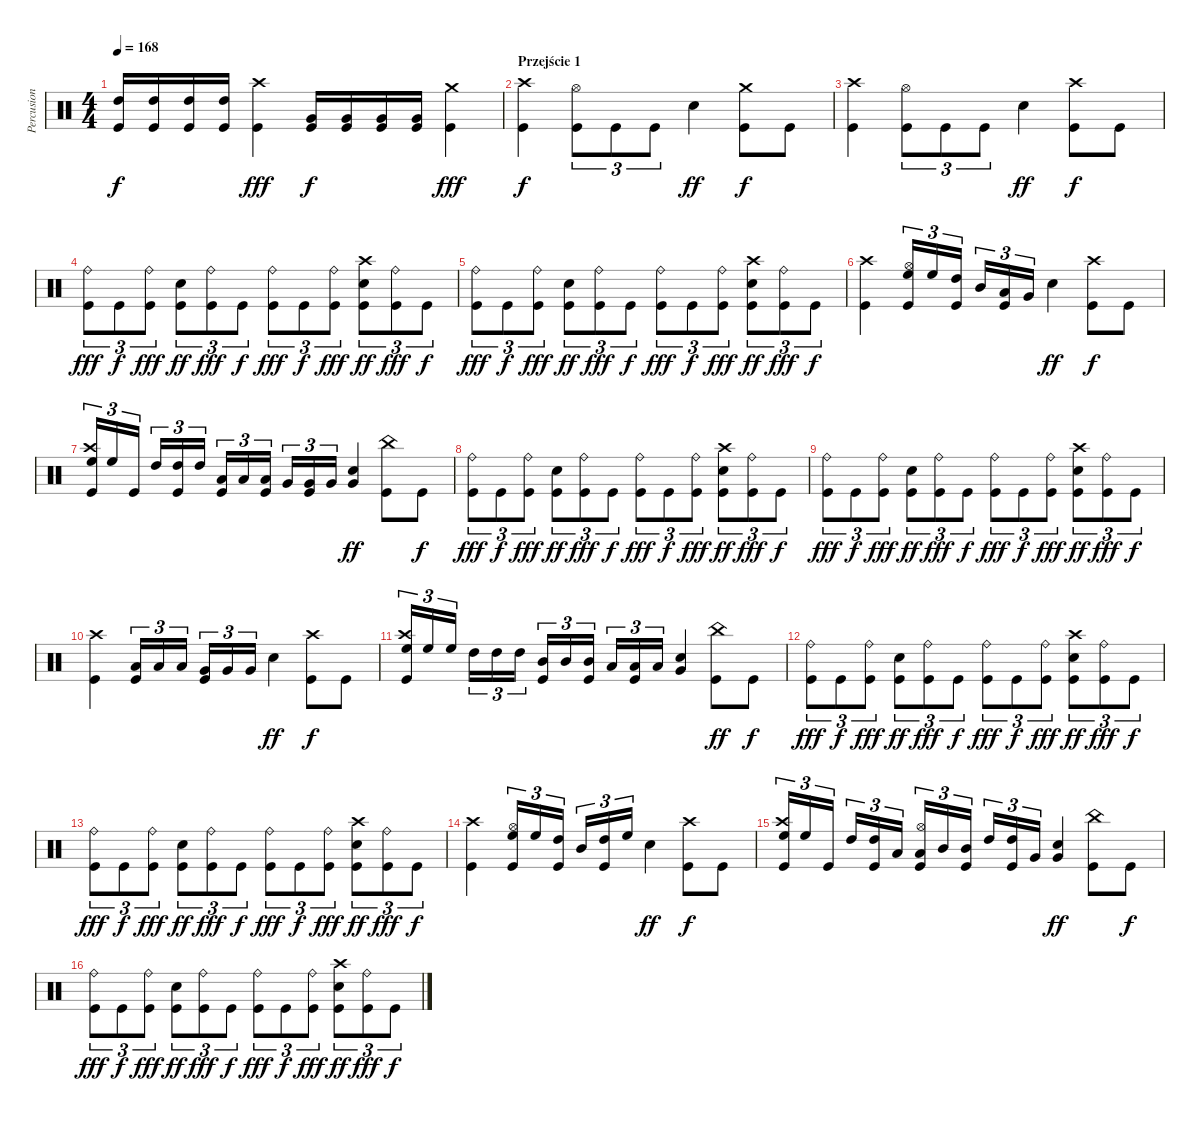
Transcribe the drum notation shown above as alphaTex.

\track ("Percusion" "Percusion") {instrument percussion}
\staff {score}
\articulation defaults
\ts (4 4)
\tempo 168
\clef neutral
\ks c
("High Tom (hit)" "Kick (hit)").16{dy f} ("High Tom (hit)" "Kick (hit)").16 ("High Tom (hit)" "Kick (hit)").16 ("High Tom (hit)" "Kick (hit)").16 ("Crash high (hit)" "Kick (hit)").4{dy fff} ("Very Low Tom (hit)" "Kick (hit)").16{dy f} ("Very Low Tom (hit)" "Kick (hit)").16 ("Very Low Tom (hit)" "Kick (hit)").16 ("Very Low Tom (hit)" "Kick (hit)").16 ("Crash medium (hit)" "Kick (hit)").4{dy fff} |
\section ("" "Przejście 1")
("Crash high (hit)" "Kick (hit)").4{dy f} ("Hi-Hat (open)" "Kick (hit)").8{tu (3 2)} "Kick (hit)".8{tu (3 2)} "Kick (hit)".8{tu (3 2)} "Snare (hit) 2".4{dy ff} ("Crash medium (hit)" "Kick (hit)").8{dy f} "Kick (hit)".8 |
("Crash high (hit)" "Kick (hit)").4 ("Hi-Hat (open)" "Kick (hit)").8{tu (3 2)} "Kick (hit)".8{tu (3 2)} "Kick (hit)".8{tu (3 2)} "Snare (hit) 2".4{dy ff} ("Crash high (hit)" "Kick (hit)").8{dy f} "Kick (hit)".8 |
("Ride (bell)" "Kick (hit)").8{tu (3 2) dy fff} "Kick (hit)".8{tu (3 2) dy f} ("Ride (bell)" "Kick (hit)").8{tu (3 2) dy fff} ("Snare (hit) 2" "Kick (hit)").8{tu (3 2) dy ff} ("Ride (bell)" "Kick (hit)").8{tu (3 2) dy fff} "Kick (hit)".8{tu (3 2) dy f} ("Ride (bell)" "Kick (hit)").8{tu (3 2) dy fff} "Kick (hit)".8{tu (3 2) dy f} ("Ride (bell)" "Kick (hit)").8{tu (3 2) dy fff} ("Crash high (hit)" "Snare (hit) 2" "Kick (hit)").8{tu (3 2) dy ff} ("Ride (bell)" "Kick (hit)").8{tu (3 2) dy fff} "Kick (hit)".8{tu (3 2) dy f} |
("Ride (bell)" "Kick (hit)").8{tu (3 2) dy fff} "Kick (hit)".8{tu (3 2) dy f} ("Ride (bell)" "Kick (hit)").8{tu (3 2) dy fff} ("Snare (hit) 2" "Kick (hit)").8{tu (3 2) dy ff} ("Ride (bell)" "Kick (hit)").8{tu (3 2) dy fff} "Kick (hit)".8{tu (3 2) dy f} ("Ride (bell)" "Kick (hit)").8{tu (3 2) dy fff} "Kick (hit)".8{tu (3 2) dy f} ("Ride (bell)" "Kick (hit)").8{tu (3 2) dy fff} ("Crash high (hit)" "Snare (hit) 2" "Kick (hit)").8{tu (3 2) dy ff} ("Ride (bell)" "Kick (hit)").8{tu (3 2) dy fff} "Kick (hit)".8{tu (3 2) dy f} |
("Crash high (hit)" "Kick (hit)").4 ("Hi-Hat (open)" "High Floor Tom (hit)" "Kick (hit)").16{tu (3 2)} "High Floor Tom (hit)".16{tu (3 2)} ("High Tom (hit)" "Kick (hit)").16{tu (3 2)} "Mid Tom (hit)".16{tu (3 2)} ("Low Tom (hit)" "Kick (hit)").16{tu (3 2)} "Very Low Tom (hit)".16{tu (3 2)} "Snare (hit) 2".4{dy ff} ("Crash high (hit)" "Kick (hit)").8{dy f} "Kick (hit)".8 |
("Crash high (hit)" "High Floor Tom (hit)" "Kick (hit)").16{tu (3 2)} "High Floor Tom (hit)".16{tu (3 2)} "Kick (hit)".16{tu (3 2)} "High Tom (hit)".16{tu (3 2)} ("High Tom (hit)" "Kick (hit)").16{tu (3 2)} "High Tom (hit)".16{tu (3 2)} ("Low Tom (hit)" "Kick (hit)").16{tu (3 2)} "Low Tom (hit)".16{tu (3 2)} ("Low Tom (hit)" "Kick (hit)").16{tu (3 2)} "Very Low Tom (hit)".16{tu (3 2)} ("Very Low Tom (hit)" "Kick (hit)").16{tu (3 2)} "Very Low Tom (hit)".16{tu (3 2)} ("Very Low Tom (hit)" "Snare (hit) 2").4{dy ff} ("China (hit)" "Kick (hit)").8 "Kick (hit)".8{dy f} |
("Ride (bell)" "Kick (hit)").8{tu (3 2) dy fff} "Kick (hit)".8{tu (3 2) dy f} ("Ride (bell)" "Kick (hit)").8{tu (3 2) dy fff} ("Snare (hit) 2" "Kick (hit)").8{tu (3 2) dy ff} ("Ride (bell)" "Kick (hit)").8{tu (3 2) dy fff} "Kick (hit)".8{tu (3 2) dy f} ("Ride (bell)" "Kick (hit)").8{tu (3 2) dy fff} "Kick (hit)".8{tu (3 2) dy f} ("Ride (bell)" "Kick (hit)").8{tu (3 2) dy fff} ("Crash high (hit)" "Snare (hit) 2" "Kick (hit)").8{tu (3 2) dy ff} ("Ride (bell)" "Kick (hit)").8{tu (3 2) dy fff} "Kick (hit)".8{tu (3 2) dy f} |
("Ride (bell)" "Kick (hit)").8{tu (3 2) dy fff} "Kick (hit)".8{tu (3 2) dy f} ("Ride (bell)" "Kick (hit)").8{tu (3 2) dy fff} ("Snare (hit) 2" "Kick (hit)").8{tu (3 2) dy ff} ("Ride (bell)" "Kick (hit)").8{tu (3 2) dy fff} "Kick (hit)".8{tu (3 2) dy f} ("Ride (bell)" "Kick (hit)").8{tu (3 2) dy fff} "Kick (hit)".8{tu (3 2) dy f} ("Ride (bell)" "Kick (hit)").8{tu (3 2) dy fff} ("Crash high (hit)" "Snare (hit) 2" "Kick (hit)").8{tu (3 2) dy ff} ("Ride (bell)" "Kick (hit)").8{tu (3 2) dy fff} "Kick (hit)".8{tu (3 2) dy f} |
("Crash high (hit)" "Kick (hit)").4 ("Low Tom (hit)" "Kick (hit)").16{tu (3 2)} "Low Tom (hit)".16{tu (3 2)} "Low Tom (hit)".16{tu (3 2)} ("Very Low Tom (hit)" "Kick (hit)").16{tu (3 2)} "Very Low Tom (hit)".16{tu (3 2)} "Very Low Tom (hit)".16{tu (3 2)} "Snare (hit) 2".4{dy ff} ("Crash high (hit)" "Kick (hit)").8{dy f} "Kick (hit)".8 |
("Crash high (hit)" "High Floor Tom (hit)" "Kick (hit)").16{tu (3 2)} "High Floor Tom (hit)".16{tu (3 2)} "High Floor Tom (hit)".16{tu (3 2)} "High Tom (hit)".16{tu (3 2)} "High Tom (hit)".16{tu (3 2)} "High Tom (hit)".16{tu (3 2)} ("Mid Tom (hit)" "Kick (hit)").16{tu (3 2)} "Mid Tom (hit)".16{tu (3 2)} ("Mid Tom (hit)" "Kick (hit)").16{tu (3 2)} "Low Tom (hit)".16{tu (3 2)} ("Low Tom (hit)" "Kick (hit)").16{tu (3 2)} "Low Tom (hit)".16{tu (3 2)} ("Very Low Tom (hit)" "Snare (hit) 2").4 ("China (hit)" "Kick (hit)").8{dy ff} "Kick (hit)".8{dy f} |
("Ride (bell)" "Kick (hit)").8{tu (3 2) dy fff} "Kick (hit)".8{tu (3 2) dy f} ("Ride (bell)" "Kick (hit)").8{tu (3 2) dy fff} ("Snare (hit) 2" "Kick (hit)").8{tu (3 2) dy ff} ("Ride (bell)" "Kick (hit)").8{tu (3 2) dy fff} "Kick (hit)".8{tu (3 2) dy f} ("Ride (bell)" "Kick (hit)").8{tu (3 2) dy fff} "Kick (hit)".8{tu (3 2) dy f} ("Ride (bell)" "Kick (hit)").8{tu (3 2) dy fff} ("Crash high (hit)" "Snare (hit) 2" "Kick (hit)").8{tu (3 2) dy ff} ("Ride (bell)" "Kick (hit)").8{tu (3 2) dy fff} "Kick (hit)".8{tu (3 2) dy f} |
("Ride (bell)" "Kick (hit)").8{tu (3 2) dy fff} "Kick (hit)".8{tu (3 2) dy f} ("Ride (bell)" "Kick (hit)").8{tu (3 2) dy fff} ("Snare (hit) 2" "Kick (hit)").8{tu (3 2) dy ff} ("Ride (bell)" "Kick (hit)").8{tu (3 2) dy fff} "Kick (hit)".8{tu (3 2) dy f} ("Ride (bell)" "Kick (hit)").8{tu (3 2) dy fff} "Kick (hit)".8{tu (3 2) dy f} ("Ride (bell)" "Kick (hit)").8{tu (3 2) dy fff} ("Crash high (hit)" "Snare (hit) 2" "Kick (hit)").8{tu (3 2) dy ff} ("Ride (bell)" "Kick (hit)").8{tu (3 2) dy fff} "Kick (hit)".8{tu (3 2) dy f} |
("Crash high (hit)" "Kick (hit)").4 ("Hi-Hat (open)" "High Floor Tom (hit)" "Kick (hit)").16{tu (3 2)} "High Floor Tom (hit)".16{tu (3 2)} ("High Tom (hit)" "Kick (hit)").16{tu (3 2)} "Mid Tom (hit)".16{tu (3 2)} ("High Tom (hit)" "Kick (hit)").16{tu (3 2)} "High Floor Tom (hit)".16{tu (3 2)} "Snare (hit) 2".4{dy ff} ("Crash high (hit)" "Kick (hit)").8{dy f} "Kick (hit)".8 |
("Crash high (hit)" "High Floor Tom (hit)" "Kick (hit)").16{tu (3 2)} "High Floor Tom (hit)".16{tu (3 2)} "Kick (hit)".16{tu (3 2)} "High Tom (hit)".16{tu (3 2)} ("High Tom (hit)" "Kick (hit)").16{tu (3 2)} "Low Tom (hit)".16{tu (3 2)} ("Hi-Hat (open)" "Low Tom (hit)" "Kick (hit)").16{tu (3 2)} "Mid Tom (hit)".16{tu (3 2)} ("Mid Tom (hit)" "Kick (hit)").16{tu (3 2)} "High Tom (hit)".16{tu (3 2)} ("High Tom (hit)" "Kick (hit)").16{tu (3 2)} "Very Low Tom (hit)".16{tu (3 2)} ("Very Low Tom (hit)" "Snare (hit) 2").4{dy ff} ("China (hit)" "Kick (hit)").8 "Kick (hit)".8{dy f} |
("Ride (bell)" "Kick (hit)").8{tu (3 2) dy fff} "Kick (hit)".8{tu (3 2) dy f} ("Ride (bell)" "Kick (hit)").8{tu (3 2) dy fff} ("Snare (hit) 2" "Kick (hit)").8{tu (3 2) dy ff} ("Ride (bell)" "Kick (hit)").8{tu (3 2) dy fff} "Kick (hit)".8{tu (3 2) dy f} ("Ride (bell)" "Kick (hit)").8{tu (3 2) dy fff} "Kick (hit)".8{tu (3 2) dy f} ("Ride (bell)" "Kick (hit)").8{tu (3 2) dy fff} ("Crash high (hit)" "Snare (hit) 2" "Kick (hit)").8{tu (3 2) dy ff} ("Ride (bell)" "Kick (hit)").8{tu (3 2) dy fff} "Kick (hit)".8{tu (3 2) dy f}
